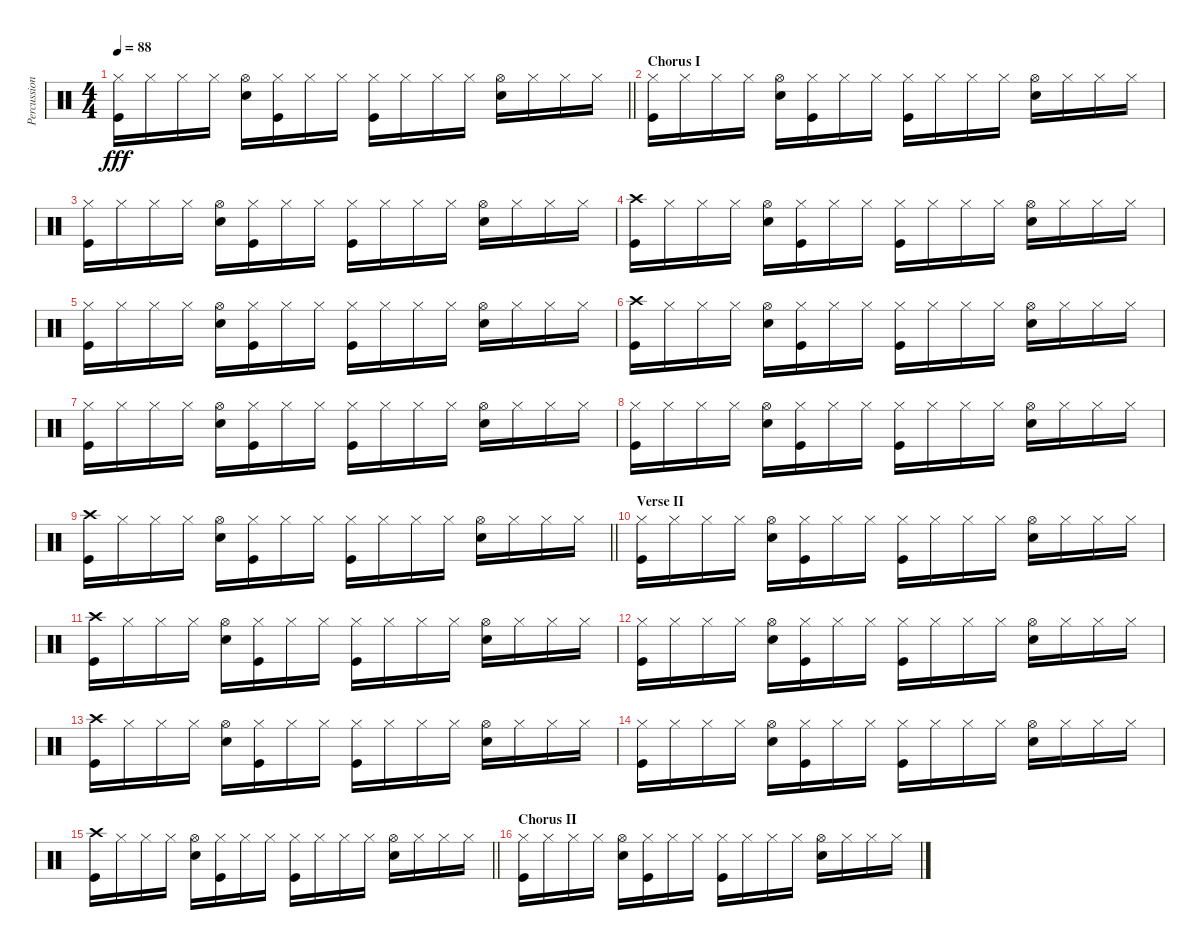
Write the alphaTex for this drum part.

\track ("Percussion" "Percussion") {instrument percussion}
\staff {score}
\articulation defaults
\ts (4 4)
\tempo 88
\clef neutral
\barLineRight lightlight
\ks c
("Hi-Hat (closed)" "Kick (hit)").16{dy fff} "Hi-Hat (closed)".16 "Hi-Hat (closed)".16 "Hi-Hat (closed)".16 ("Hi-Hat (open)" "Snare (hit) 2").16 ("Hi-Hat (closed)" "Kick (hit)").16 "Hi-Hat (closed)".16 "Hi-Hat (closed)".16 ("Hi-Hat (closed)" "Kick (hit)").16 "Hi-Hat (closed)".16 "Hi-Hat (closed)".16 "Hi-Hat (closed)".16 ("Hi-Hat (open)" "Snare (hit) 2").16 "Hi-Hat (closed)".16 "Hi-Hat (closed)".16 "Hi-Hat (closed)".16 |
\section ("" "Chorus I")
("Hi-Hat (closed)" "Kick (hit)").16 "Hi-Hat (closed)".16 "Hi-Hat (closed)".16 "Hi-Hat (closed)".16 ("Hi-Hat (open)" "Snare (hit) 2").16 ("Hi-Hat (closed)" "Kick (hit)").16 "Hi-Hat (closed)".16 "Hi-Hat (closed)".16 ("Hi-Hat (closed)" "Kick (hit)").16 "Hi-Hat (closed)".16 "Hi-Hat (closed)".16 "Hi-Hat (closed)".16 ("Hi-Hat (open)" "Snare (hit) 2").16 "Hi-Hat (closed)".16 "Hi-Hat (closed)".16 "Hi-Hat (closed)".16 |
("Hi-Hat (closed)" "Kick (hit)").16 "Hi-Hat (closed)".16 "Hi-Hat (closed)".16 "Hi-Hat (closed)".16 ("Hi-Hat (open)" "Snare (hit) 2").16 ("Hi-Hat (closed)" "Kick (hit)").16 "Hi-Hat (closed)".16 "Hi-Hat (closed)".16 ("Hi-Hat (closed)" "Kick (hit)").16 "Hi-Hat (closed)".16 "Hi-Hat (closed)".16 "Hi-Hat (closed)".16 ("Hi-Hat (open)" "Snare (hit) 2").16 "Hi-Hat (closed)".16 "Hi-Hat (closed)".16 "Hi-Hat (closed)".16 |
("Crash high (hit)" "Kick (hit)").16 "Hi-Hat (closed)".16 "Hi-Hat (closed)".16 "Hi-Hat (closed)".16 ("Hi-Hat (open)" "Snare (hit) 2").16 ("Hi-Hat (closed)" "Kick (hit)").16 "Hi-Hat (closed)".16 "Hi-Hat (closed)".16 ("Hi-Hat (closed)" "Kick (hit)").16 "Hi-Hat (closed)".16 "Hi-Hat (closed)".16 "Hi-Hat (closed)".16 ("Hi-Hat (open)" "Snare (hit) 2").16 "Hi-Hat (closed)".16 "Hi-Hat (closed)".16 "Hi-Hat (closed)".16 |
("Hi-Hat (closed)" "Kick (hit)").16 "Hi-Hat (closed)".16 "Hi-Hat (closed)".16 "Hi-Hat (closed)".16 ("Hi-Hat (open)" "Snare (hit) 2").16 ("Hi-Hat (closed)" "Kick (hit)").16 "Hi-Hat (closed)".16 "Hi-Hat (closed)".16 ("Hi-Hat (closed)" "Kick (hit)").16 "Hi-Hat (closed)".16 "Hi-Hat (closed)".16 "Hi-Hat (closed)".16 ("Hi-Hat (open)" "Snare (hit) 2").16 "Hi-Hat (closed)".16 "Hi-Hat (closed)".16 "Hi-Hat (closed)".16 |
("Crash high (hit)" "Kick (hit)").16 "Hi-Hat (closed)".16 "Hi-Hat (closed)".16 "Hi-Hat (closed)".16 ("Hi-Hat (open)" "Snare (hit) 2").16 ("Hi-Hat (closed)" "Kick (hit)").16 "Hi-Hat (closed)".16 "Hi-Hat (closed)".16 ("Hi-Hat (closed)" "Kick (hit)").16 "Hi-Hat (closed)".16 "Hi-Hat (closed)".16 "Hi-Hat (closed)".16 ("Hi-Hat (open)" "Snare (hit) 2").16 "Hi-Hat (closed)".16 "Hi-Hat (closed)".16 "Hi-Hat (closed)".16 |
("Hi-Hat (closed)" "Kick (hit)").16 "Hi-Hat (closed)".16 "Hi-Hat (closed)".16 "Hi-Hat (closed)".16 ("Hi-Hat (open)" "Snare (hit) 2").16 ("Hi-Hat (closed)" "Kick (hit)").16 "Hi-Hat (closed)".16 "Hi-Hat (closed)".16 ("Hi-Hat (closed)" "Kick (hit)").16 "Hi-Hat (closed)".16 "Hi-Hat (closed)".16 "Hi-Hat (closed)".16 ("Hi-Hat (open)" "Snare (hit) 2").16 "Hi-Hat (closed)".16 "Hi-Hat (closed)".16 "Hi-Hat (closed)".16 |
("Hi-Hat (closed)" "Kick (hit)").16 "Hi-Hat (closed)".16 "Hi-Hat (closed)".16 "Hi-Hat (closed)".16 ("Hi-Hat (open)" "Snare (hit) 2").16 ("Hi-Hat (closed)" "Kick (hit)").16 "Hi-Hat (closed)".16 "Hi-Hat (closed)".16 ("Hi-Hat (closed)" "Kick (hit)").16 "Hi-Hat (closed)".16 "Hi-Hat (closed)".16 "Hi-Hat (closed)".16 ("Hi-Hat (open)" "Snare (hit) 2").16 "Hi-Hat (closed)".16 "Hi-Hat (closed)".16 "Hi-Hat (closed)".16 |
\barLineRight lightlight
("Crash high (hit)" "Kick (hit)").16 "Hi-Hat (closed)".16 "Hi-Hat (closed)".16 "Hi-Hat (closed)".16 ("Hi-Hat (open)" "Snare (hit) 2").16 ("Hi-Hat (closed)" "Kick (hit)").16 "Hi-Hat (closed)".16 "Hi-Hat (closed)".16 ("Hi-Hat (closed)" "Kick (hit)").16 "Hi-Hat (closed)".16 "Hi-Hat (closed)".16 "Hi-Hat (closed)".16 ("Hi-Hat (open)" "Snare (hit) 2").16 "Hi-Hat (closed)".16 "Hi-Hat (closed)".16 "Hi-Hat (closed)".16 |
\section ("" "Verse II")
("Hi-Hat (closed)" "Kick (hit)").16 "Hi-Hat (closed)".16 "Hi-Hat (closed)".16 "Hi-Hat (closed)".16 ("Hi-Hat (open)" "Snare (hit) 2").16 ("Hi-Hat (closed)" "Kick (hit)").16 "Hi-Hat (closed)".16 "Hi-Hat (closed)".16 ("Hi-Hat (closed)" "Kick (hit)").16 "Hi-Hat (closed)".16 "Hi-Hat (closed)".16 "Hi-Hat (closed)".16 ("Hi-Hat (open)" "Snare (hit) 2").16 "Hi-Hat (closed)".16 "Hi-Hat (closed)".16 "Hi-Hat (closed)".16 |
("Crash high (hit)" "Kick (hit)").16 "Hi-Hat (closed)".16 "Hi-Hat (closed)".16 "Hi-Hat (closed)".16 ("Hi-Hat (open)" "Snare (hit) 2").16 ("Hi-Hat (closed)" "Kick (hit)").16 "Hi-Hat (closed)".16 "Hi-Hat (closed)".16 ("Hi-Hat (closed)" "Kick (hit)").16 "Hi-Hat (closed)".16 "Hi-Hat (closed)".16 "Hi-Hat (closed)".16 ("Hi-Hat (open)" "Snare (hit) 2").16 "Hi-Hat (closed)".16 "Hi-Hat (closed)".16 "Hi-Hat (closed)".16 |
("Hi-Hat (closed)" "Kick (hit)").16 "Hi-Hat (closed)".16 "Hi-Hat (closed)".16 "Hi-Hat (closed)".16 ("Hi-Hat (open)" "Snare (hit) 2").16 ("Hi-Hat (closed)" "Kick (hit)").16 "Hi-Hat (closed)".16 "Hi-Hat (closed)".16 ("Hi-Hat (closed)" "Kick (hit)").16 "Hi-Hat (closed)".16 "Hi-Hat (closed)".16 "Hi-Hat (closed)".16 ("Hi-Hat (open)" "Snare (hit) 2").16 "Hi-Hat (closed)".16 "Hi-Hat (closed)".16 "Hi-Hat (closed)".16 |
("Crash high (hit)" "Kick (hit)").16 "Hi-Hat (closed)".16 "Hi-Hat (closed)".16 "Hi-Hat (closed)".16 ("Hi-Hat (open)" "Snare (hit) 2").16 ("Hi-Hat (closed)" "Kick (hit)").16 "Hi-Hat (closed)".16 "Hi-Hat (closed)".16 ("Hi-Hat (closed)" "Kick (hit)").16 "Hi-Hat (closed)".16 "Hi-Hat (closed)".16 "Hi-Hat (closed)".16 ("Hi-Hat (open)" "Snare (hit) 2").16 "Hi-Hat (closed)".16 "Hi-Hat (closed)".16 "Hi-Hat (closed)".16 |
("Hi-Hat (closed)" "Kick (hit)").16 "Hi-Hat (closed)".16 "Hi-Hat (closed)".16 "Hi-Hat (closed)".16 ("Hi-Hat (open)" "Snare (hit) 2").16 ("Hi-Hat (closed)" "Kick (hit)").16 "Hi-Hat (closed)".16 "Hi-Hat (closed)".16 ("Hi-Hat (closed)" "Kick (hit)").16 "Hi-Hat (closed)".16 "Hi-Hat (closed)".16 "Hi-Hat (closed)".16 ("Hi-Hat (open)" "Snare (hit) 2").16 "Hi-Hat (closed)".16 "Hi-Hat (closed)".16 "Hi-Hat (closed)".16 |
\barLineRight lightlight
("Crash high (hit)" "Kick (hit)").16 "Hi-Hat (closed)".16 "Hi-Hat (closed)".16 "Hi-Hat (closed)".16 ("Hi-Hat (open)" "Snare (hit) 2").16 ("Hi-Hat (closed)" "Kick (hit)").16 "Hi-Hat (closed)".16 "Hi-Hat (closed)".16 ("Hi-Hat (closed)" "Kick (hit)").16 "Hi-Hat (closed)".16 "Hi-Hat (closed)".16 "Hi-Hat (closed)".16 ("Hi-Hat (open)" "Snare (hit) 2").16 "Hi-Hat (closed)".16 "Hi-Hat (closed)".16 "Hi-Hat (closed)".16 |
\section ("" "Chorus II")
("Hi-Hat (closed)" "Kick (hit)").16 "Hi-Hat (closed)".16 "Hi-Hat (closed)".16 "Hi-Hat (closed)".16 ("Hi-Hat (open)" "Snare (hit) 2").16 ("Hi-Hat (closed)" "Kick (hit)").16 "Hi-Hat (closed)".16 "Hi-Hat (closed)".16 ("Hi-Hat (closed)" "Kick (hit)").16 "Hi-Hat (closed)".16 "Hi-Hat (closed)".16 "Hi-Hat (closed)".16 ("Hi-Hat (open)" "Snare (hit) 2").16 "Hi-Hat (closed)".16 "Hi-Hat (closed)".16 "Hi-Hat (closed)".16
